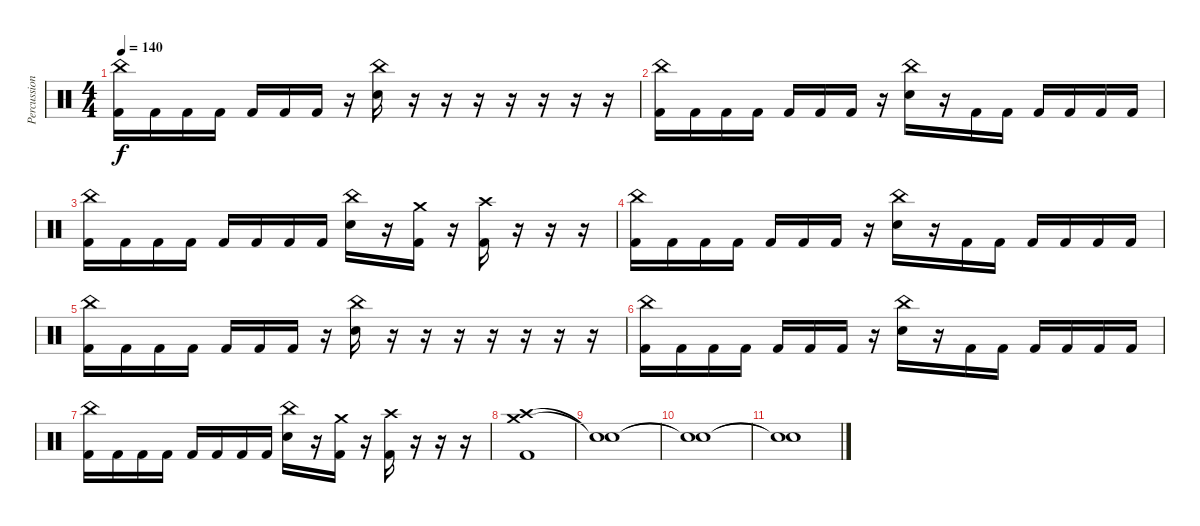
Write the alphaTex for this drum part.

\track ("Percussion" "Percussion") {instrument percussion}
\staff {score}
\articulation defaults
\ts (4 4)
\tempo 140
\clef neutral
\ks c
("China (hit)" "Kick (hit) 2").16{dy f} "Kick (hit) 2".16 "Kick (hit) 2".16 "Kick (hit) 2".16 "Kick (hit) 2".16 "Kick (hit) 2".16 "Kick (hit) 2".16 r.16 ("China (hit)" "Electric Snare (hit)").16 r.16 r.16 r.16 r.16 r.16 r.16 r.16 |
("China (hit)" "Kick (hit) 2").16 "Kick (hit) 2".16 "Kick (hit) 2".16 "Kick (hit) 2".16 "Kick (hit) 2".16 "Kick (hit) 2".16 "Kick (hit) 2".16 r.16 ("China (hit)" "Electric Snare (hit)").16 r.16 "Kick (hit) 2".16 "Kick (hit) 2".16 "Kick (hit) 2".16 "Kick (hit) 2".16 "Kick (hit) 2".16 "Kick (hit) 2".16 |
("China (hit)" "Kick (hit) 2").16 "Kick (hit) 2".16 "Kick (hit) 2".16 "Kick (hit) 2".16 "Kick (hit) 2".16 "Kick (hit) 2".16 "Kick (hit) 2".16 "Kick (hit) 2".16 ("China (hit)" "Electric Snare (hit)").16 r.16 ("Crash medium (hit)" "Kick (hit) 2").16 r.16 ("Crash high (hit)" "Kick (hit) 2").16 r.16 r.16 r.16 |
("China (hit)" "Kick (hit) 2").16 "Kick (hit) 2".16 "Kick (hit) 2".16 "Kick (hit) 2".16 "Kick (hit) 2".16 "Kick (hit) 2".16 "Kick (hit) 2".16 r.16 ("China (hit)" "Electric Snare (hit)").16 r.16 "Kick (hit) 2".16 "Kick (hit) 2".16 "Kick (hit) 2".16 "Kick (hit) 2".16 "Kick (hit) 2".16 "Kick (hit) 2".16 |
("China (hit)" "Kick (hit) 2").16 "Kick (hit) 2".16 "Kick (hit) 2".16 "Kick (hit) 2".16 "Kick (hit) 2".16 "Kick (hit) 2".16 "Kick (hit) 2".16 r.16 ("China (hit)" "Electric Snare (hit)").16 r.16 r.16 r.16 r.16 r.16 r.16 r.16 |
("China (hit)" "Kick (hit) 2").16 "Kick (hit) 2".16 "Kick (hit) 2".16 "Kick (hit) 2".16 "Kick (hit) 2".16 "Kick (hit) 2".16 "Kick (hit) 2".16 r.16 ("China (hit)" "Electric Snare (hit)").16 r.16 "Kick (hit) 2".16 "Kick (hit) 2".16 "Kick (hit) 2".16 "Kick (hit) 2".16 "Kick (hit) 2".16 "Kick (hit) 2".16 |
("China (hit)" "Kick (hit) 2").16 "Kick (hit) 2".16 "Kick (hit) 2".16 "Kick (hit) 2".16 "Kick (hit) 2".16 "Kick (hit) 2".16 "Kick (hit) 2".16 "Kick (hit) 2".16 ("China (hit)" "Electric Snare (hit)").16 r.16 ("Crash medium (hit)" "Kick (hit) 2").16 r.16 ("Crash high (hit)" "Kick (hit) 2").16 r.16 r.16 r.16 |
("Crash medium (hit)" "Crash high (hit)" "Kick (hit) 2").1 |
("Snare (hit)"{t} "Snare (hit)"{t}).1 |
("Snare (hit)"{t} "Snare (hit)"{t}).1 |
("Snare (hit)"{t} "Snare (hit)"{t}).1
